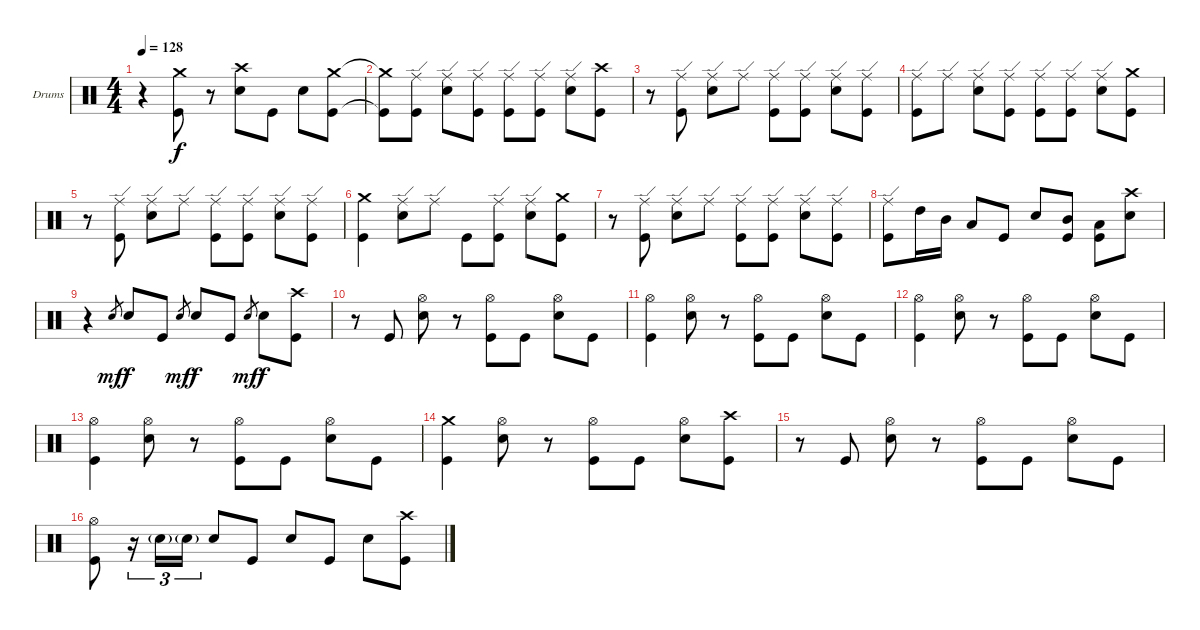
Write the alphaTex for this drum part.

\defaultSystemsLayout 4
\bracketExtendMode groupsimilarinstruments
\firstSystemTrackNameOrientation horizontal
\otherSystemsTrackNameOrientation horizontal
\track ("Drumkit" "Drums") {instrument percussion}
\staff {score}
\articulation defaults
\ts (4 4)
\tempo 128
\clef neutral
\ks c
r.4{dy f} ("Crash medium (hit)" "Kick (hit)").8 r.8 ("Crash high (hit)" "Snare (hit) 2").8 "Kick (hit)".8 "Snare (hit) 2".8 ("Crash medium (hit)" "Kick (hit)").8 |
("Crash medium (hit)"{t} "Kick (hit)"{t}).8 ("Ride (edge)" "Kick (hit)").8 ("Ride (edge)" "Snare (hit) 2").8 ("Ride (edge)" "Kick (hit)").8 ("Ride (edge)" "Kick (hit)").8 ("Ride (edge)" "Kick (hit)").8 ("Ride (edge)" "Snare (hit) 2").8 ("Crash high (hit)" "Kick (hit)").8 |
r.8 ("Ride (edge)" "Kick (hit)").8 ("Ride (edge)" "Snare (hit) 2").8 "Ride (edge)".8 ("Ride (edge)" "Kick (hit)").8 ("Ride (edge)" "Kick (hit)").8 ("Ride (edge)" "Snare (hit) 2").8 ("Ride (edge)" "Kick (hit)").8 |
("Ride (edge)" "Kick (hit)").8 "Ride (edge)".8 ("Ride (edge)" "Snare (hit) 2").8 ("Ride (edge)" "Kick (hit)").8 ("Ride (edge)" "Kick (hit)").8 ("Ride (edge)" "Kick (hit)").8 ("Ride (edge)" "Snare (hit) 2").8 ("Crash medium (hit)" "Kick (hit)").8 |
r.8 ("Ride (edge)" "Kick (hit)").8 ("Ride (edge)" "Snare (hit) 2").8 "Ride (edge)".8 ("Ride (edge)" "Kick (hit)").8 ("Ride (edge)" "Kick (hit)").8 ("Ride (edge)" "Snare (hit) 2").8 ("Ride (edge)" "Kick (hit)").8 |
("Crash medium (hit)" "Kick (hit)").4 ("Ride (edge)" "Snare (hit) 2").8 "Ride (edge)".8 "Kick (hit)".8 ("Ride (edge)" "Kick (hit)").8 ("Ride (edge)" "Snare (hit) 2").8 ("Crash medium (hit)" "Kick (hit)").8 |
r.8 ("Ride (edge)" "Kick (hit)").8 ("Ride (edge)" "Snare (hit) 2").8 "Ride (edge)".8 ("Ride (edge)" "Kick (hit)").8 ("Ride (edge)" "Kick (hit)").8 ("Ride (edge)" "Snare (hit) 2").8 ("Ride (edge)" "Kick (hit)").8 |
("Ride (edge)" "Kick (hit)").8 "High Tom (hit)".16 "Mid Tom (hit)".16 "Low Tom (hit)".8 "Kick (hit)".8 "Snare (hit) 2".8 ("Mid Tom (hit)" "Kick (hit)").8 ("Low Tom (hit)" "Kick (hit)").8 ("Crash high (hit)" "Snare (hit) 2").8 |
r.4 "Snare (hit) 2".8{gr dy mf} "Snare (hit) 2".8{dy f} "Kick (hit)".8 "Snare (hit) 2".8{gr dy mf} "Snare (hit) 2".8{dy f} "Kick (hit)".8 "Snare (hit) 2".8{gr dy mf} "Snare (hit) 2".8{dy f} ("Crash high (hit)" "Kick (hit)").8 |
r.8 "Kick (hit)".8 ("Hi-Hat (open)" "Snare (hit) 2").8 r.8 ("Hi-Hat (open)" "Kick (hit)").8 "Kick (hit)".8 ("Hi-Hat (open)" "Snare (hit) 2").8 "Kick (hit)".8 |
("Hi-Hat (open)" "Kick (hit)").4 ("Hi-Hat (open)" "Snare (hit) 2").8 r.8 ("Hi-Hat (open)" "Kick (hit)").8 "Kick (hit)".8 ("Hi-Hat (open)" "Snare (hit) 2").8 "Kick (hit)".8 |
("Hi-Hat (open)" "Kick (hit)").4 ("Hi-Hat (open)" "Snare (hit) 2").8 r.8 ("Hi-Hat (open)" "Kick (hit)").8 "Kick (hit)".8 ("Hi-Hat (open)" "Snare (hit) 2").8 "Kick (hit)".8 |
("Hi-Hat (open)" "Kick (hit)").4 ("Hi-Hat (open)" "Snare (hit) 2").8 r.8 ("Hi-Hat (open)" "Kick (hit)").8 "Kick (hit)".8 ("Hi-Hat (open)" "Snare (hit) 2").8 "Kick (hit)".8 |
("Crash medium (hit)" "Kick (hit)").4 ("Hi-Hat (open)" "Snare (hit) 2").8 r.8 ("Hi-Hat (open)" "Kick (hit)").8 "Kick (hit)".8 ("Hi-Hat (open)" "Snare (hit) 2").8 ("Crash high (hit)" "Kick (hit)").8 |
r.8 "Kick (hit)".8 ("Hi-Hat (open)" "Snare (hit) 2").8 r.8 ("Hi-Hat (open)" "Kick (hit)").8 "Kick (hit)".8 ("Hi-Hat (open)" "Snare (hit) 2").8 "Kick (hit)".8 |
("Hi-Hat (open)" "Kick (hit)").8 r.16{tu (3 2)} "Snare (hit) 2"{g}.16{tu (3 2)} "Snare (hit) 2"{g}.16{tu (3 2)} "Snare (hit) 2".8 "Kick (hit)".8 "Snare (hit) 2".8 "Kick (hit)".8 "Snare (hit) 2".8 ("Crash high (hit)" "Kick (hit)").8
